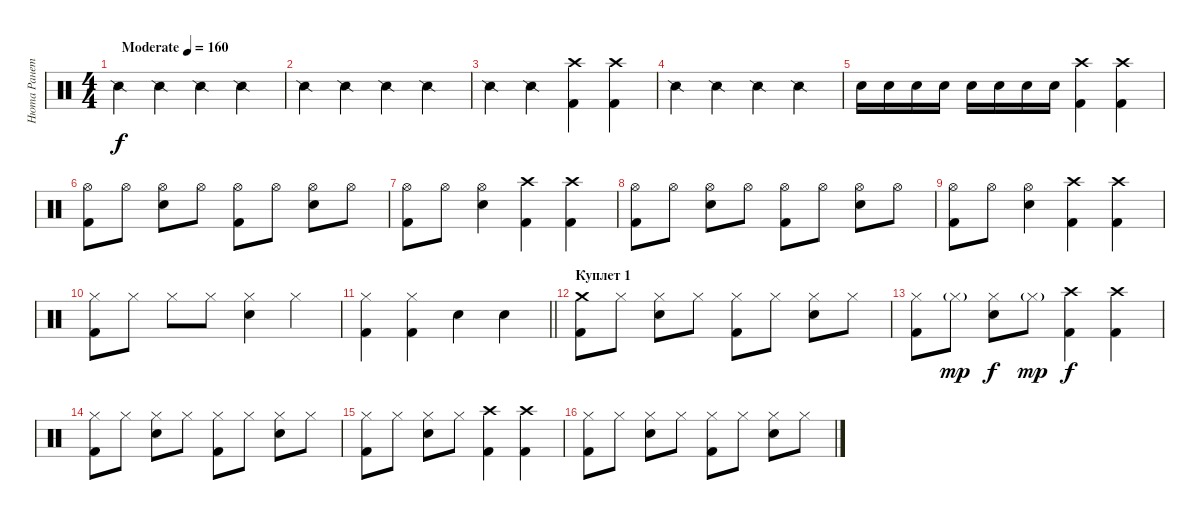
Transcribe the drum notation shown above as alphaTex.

\track ("Нюта Ранетка" "Нюта Ранет") {instrument percussion}
\staff {score}
\articulation defaults
\ts (4 4)
\tempo (160 "Moderate")
\clef neutral
\ks c "Snare (side stick) 2".4{dy f} "Snare (side stick) 2".4 "Snare (side stick) 2".4 "Snare (side stick) 2".4
|
"Snare (side stick) 2".4 "Snare (side stick) 2".4 "Snare (side stick) 2".4 "Snare (side stick) 2".4 |
"Snare (side stick) 2".4 "Snare (side stick) 2".4 ("Crash high (hit)" "Kick (hit) 2").4 ("Crash high (hit)" "Kick (hit) 2").4 |
"Snare (side stick) 2".4 "Snare (side stick) 2".4 "Snare (side stick) 2".4 "Snare (side stick) 2".4 |
"Snare (hit) 2".16 "Snare (hit) 2".16 "Snare (hit) 2".16 "Snare (hit) 2".16 "Snare (hit) 2".16 "Snare (hit) 2".16 "Snare (hit) 2".16 "Snare (hit) 2".16 ("Crash high (hit)" "Kick (hit) 2").4 ("Crash high (hit)" "Kick (hit) 2").4 |
("Hi-Hat (open)" "Kick (hit) 2").8 "Hi-Hat (open)".8 ("Hi-Hat (open)" "Snare (hit) 2").8 "Hi-Hat (open)".8 ("Hi-Hat (open)" "Kick (hit) 2").8 "Hi-Hat (open)".8 ("Hi-Hat (open)" "Snare (hit) 2").8 "Hi-Hat (open)".8 |
("Hi-Hat (open)" "Kick (hit) 2").8 "Hi-Hat (open)".8 ("Hi-Hat (open)" "Snare (hit) 2").4 ("Crash high (hit)" "Kick (hit) 2").4 ("Crash high (hit)" "Kick (hit) 2").4 |
("Hi-Hat (open)" "Kick (hit) 2").8 "Hi-Hat (open)".8 ("Hi-Hat (open)" "Snare (hit) 2").8 "Hi-Hat (open)".8 ("Hi-Hat (open)" "Kick (hit) 2").8 "Hi-Hat (open)".8 ("Hi-Hat (open)" "Snare (hit) 2").8 "Hi-Hat (open)".8 |
("Hi-Hat (open)" "Kick (hit) 2").8 "Hi-Hat (open)".8 ("Hi-Hat (open)" "Snare (hit) 2").4 ("Crash high (hit)" "Kick (hit) 2").4 ("Crash high (hit)" "Kick (hit) 2").4 |
("Hi-Hat (closed)" "Kick (hit) 2").8 "Hi-Hat (closed)".8 "Hi-Hat (closed)".8 "Hi-Hat (closed)".8 ("Hi-Hat (closed)" "Snare (hit) 2").4 "Hi-Hat (closed)".4 |
\barLineRight lightlight
("Hi-Hat (closed)" "Kick (hit) 2").4 ("Hi-Hat (closed)" "Kick (hit) 2").4 "Snare (hit) 2".4 "Snare (hit) 2".4 |
\section ("" "Куплет 1")
("Crash medium (hit)" "Kick (hit) 2").8 "Hi-Hat (closed)".8 ("Hi-Hat (closed)" "Electric Snare (hit)").8 "Hi-Hat (closed)".8 ("Hi-Hat (closed)" "Kick (hit) 2").8 "Hi-Hat (closed)".8 ("Hi-Hat (closed)" "Electric Snare (hit)").8 "Hi-Hat (closed)".8 |
("Hi-Hat (closed)" "Kick (hit) 2").8 "Hi-Hat (closed)"{g}.8{dy mp} ("Hi-Hat (closed)" "Snare (hit) 2").8{dy f} "Hi-Hat (closed)"{g}.8{dy mp} ("Crash high (hit)" "Kick (hit) 2").4{dy f} ("Crash high (hit)" "Kick (hit) 2").4 |
("Hi-Hat (closed)" "Kick (hit) 2").8 "Hi-Hat (closed)".8 ("Hi-Hat (closed)" "Snare (hit) 2").8 "Hi-Hat (closed)".8 ("Hi-Hat (closed)" "Kick (hit) 2").8 "Hi-Hat (closed)".8 ("Hi-Hat (closed)" "Snare (hit) 2").8 "Hi-Hat (closed)".8 |
("Hi-Hat (closed)" "Kick (hit) 2").8 "Hi-Hat (closed)".8 ("Hi-Hat (closed)" "Snare (hit) 2").8 "Hi-Hat (closed)".8 ("Crash high (hit)" "Kick (hit) 2").4 ("Crash high (hit)" "Kick (hit) 2").4 |
("Hi-Hat (closed)" "Kick (hit) 2").8 "Hi-Hat (closed)".8 ("Hi-Hat (closed)" "Snare (hit) 2").8 "Hi-Hat (closed)".8 ("Hi-Hat (closed)" "Kick (hit) 2").8 "Hi-Hat (closed)".8 ("Hi-Hat (closed)" "Snare (hit) 2").8 "Hi-Hat (closed)".8
